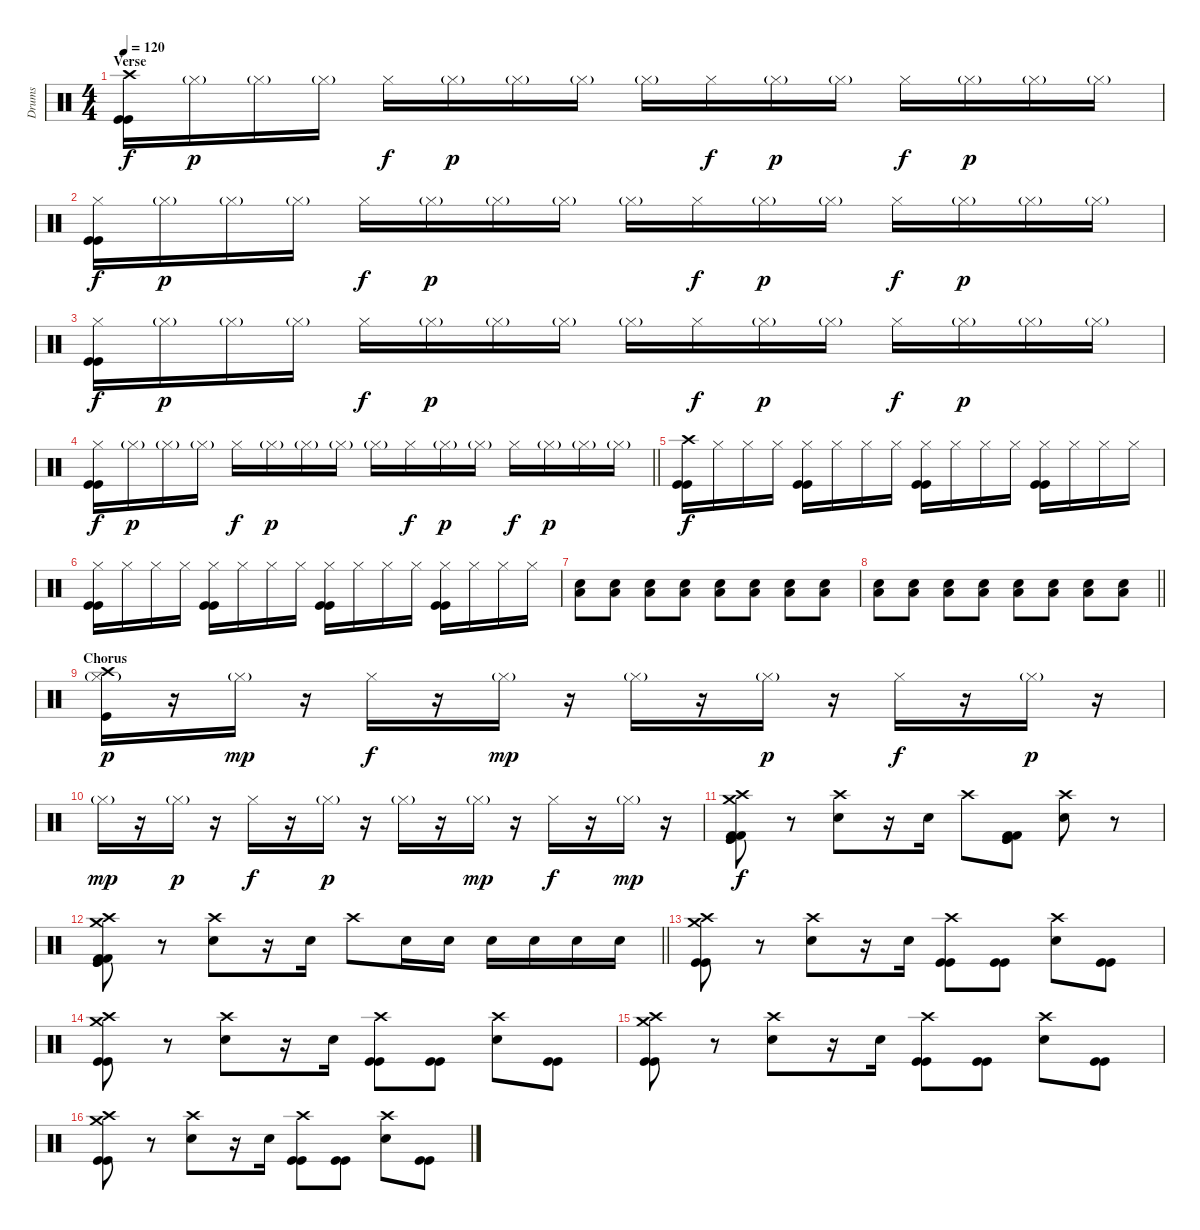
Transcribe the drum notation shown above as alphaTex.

\track ("Drums" "Drums") {instrument percussion}
\staff {score}
\articulation defaults
\ts (4 4)
\section ("" "Verse")
\tempo 120
\clef neutral
\ks c
("Crash high (hit)" "Kick (hit)" "Kick (hit)").16{dy f} "Hi-Hat (closed)"{g}.16{dy p} "Hi-Hat (closed)"{g}.16 "Hi-Hat (closed)"{g}.16 "Hi-Hat (closed)".16{dy f} "Hi-Hat (closed)"{g}.16{dy p} "Hi-Hat (closed)"{g}.16 "Hi-Hat (closed)"{g}.16 "Hi-Hat (closed)"{g}.16 "Hi-Hat (closed)".16{dy f} "Hi-Hat (closed)"{g}.16{dy p} "Hi-Hat (closed)"{g}.16 "Hi-Hat (closed)".16{dy f} "Hi-Hat (closed)"{g}.16{dy p} "Hi-Hat (closed)"{g}.16 "Hi-Hat (closed)"{g}.16 |
("Hi-Hat (closed)" "Kick (hit)" "Kick (hit)").16{dy f} "Hi-Hat (closed)"{g}.16{dy p} "Hi-Hat (closed)"{g}.16 "Hi-Hat (closed)"{g}.16 "Hi-Hat (closed)".16{dy f} "Hi-Hat (closed)"{g}.16{dy p} "Hi-Hat (closed)"{g}.16 "Hi-Hat (closed)"{g}.16 "Hi-Hat (closed)"{g}.16 "Hi-Hat (closed)".16{dy f} "Hi-Hat (closed)"{g}.16{dy p} "Hi-Hat (closed)"{g}.16 "Hi-Hat (closed)".16{dy f} "Hi-Hat (closed)"{g}.16{dy p} "Hi-Hat (closed)"{g}.16 "Hi-Hat (closed)"{g}.16 |
("Hi-Hat (closed)" "Kick (hit)" "Kick (hit)").16{dy f} "Hi-Hat (closed)"{g}.16{dy p} "Hi-Hat (closed)"{g}.16 "Hi-Hat (closed)"{g}.16 "Hi-Hat (closed)".16{dy f} "Hi-Hat (closed)"{g}.16{dy p} "Hi-Hat (closed)"{g}.16 "Hi-Hat (closed)"{g}.16 "Hi-Hat (closed)"{g}.16 "Hi-Hat (closed)".16{dy f} "Hi-Hat (closed)"{g}.16{dy p} "Hi-Hat (closed)"{g}.16 "Hi-Hat (closed)".16{dy f} "Hi-Hat (closed)"{g}.16{dy p} "Hi-Hat (closed)"{g}.16 "Hi-Hat (closed)"{g}.16 |
\barLineRight lightlight
("Hi-Hat (closed)" "Kick (hit)" "Kick (hit)").16{dy f} "Hi-Hat (closed)"{g}.16{dy p} "Hi-Hat (closed)"{g}.16 "Hi-Hat (closed)"{g}.16 "Hi-Hat (closed)".16{dy f} "Hi-Hat (closed)"{g}.16{dy p} "Hi-Hat (closed)"{g}.16 "Hi-Hat (closed)"{g}.16 "Hi-Hat (closed)"{g}.16 "Hi-Hat (closed)".16{dy f} "Hi-Hat (closed)"{g}.16{dy p} "Hi-Hat (closed)"{g}.16 "Hi-Hat (closed)".16{dy f} "Hi-Hat (closed)"{g}.16{dy p} "Hi-Hat (closed)"{g}.16 "Hi-Hat (closed)"{g}.16 |
("Crash high (hit)" "Kick (hit)" "Kick (hit)").16{dy f} "Hi-Hat (closed)".16 "Hi-Hat (closed)".16 "Hi-Hat (closed)".16 ("Hi-Hat (closed)" "Kick (hit)" "Kick (hit)").16 "Hi-Hat (closed)".16 "Hi-Hat (closed)".16 "Hi-Hat (closed)".16 ("Hi-Hat (closed)" "Kick (hit)" "Kick (hit)").16 "Hi-Hat (closed)".16 "Hi-Hat (closed)".16 "Hi-Hat (closed)".16 ("Hi-Hat (closed)" "Kick (hit)" "Kick (hit)").16 "Hi-Hat (closed)".16 "Hi-Hat (closed)".16 "Hi-Hat (closed)".16 |
("Hi-Hat (closed)" "Kick (hit)" "Kick (hit)").16 "Hi-Hat (closed)".16 "Hi-Hat (closed)".16 "Hi-Hat (closed)".16 ("Hi-Hat (closed)" "Kick (hit)" "Kick (hit)").16 "Hi-Hat (closed)".16 "Hi-Hat (closed)".16 "Hi-Hat (closed)".16 ("Hi-Hat (closed)" "Kick (hit)" "Kick (hit)").16 "Hi-Hat (closed)".16 "Hi-Hat (closed)".16 "Hi-Hat (closed)".16 ("Hi-Hat (closed)" "Kick (hit)" "Kick (hit)").16 "Hi-Hat (closed)".16 "Hi-Hat (closed)".16 "Hi-Hat (closed)".16 |
("Low Floor Tom (hit)" "Snare (hit) 2").8{volume 1} ("Low Floor Tom (hit)" "Snare (hit) 2").8{volume 13} ("Low Floor Tom (hit)" "Snare (hit) 2").8 ("Low Floor Tom (hit)" "Snare (hit) 2").8 ("Low Floor Tom (hit)" "Snare (hit) 2").8 ("Low Floor Tom (hit)" "Snare (hit) 2").8 ("Low Floor Tom (hit)" "Snare (hit) 2").8 ("Low Floor Tom (hit)" "Snare (hit) 2").8 |
\barLineRight lightlight
("Low Floor Tom (hit)" "Snare (hit) 2").8 ("Low Floor Tom (hit)" "Snare (hit) 2").8 ("Low Floor Tom (hit)" "Snare (hit) 2").8 ("Low Floor Tom (hit)" "Snare (hit) 2").8 ("Low Floor Tom (hit)" "Snare (hit) 2").8 ("Low Floor Tom (hit)" "Snare (hit) 2").8 ("Low Floor Tom (hit)" "Snare (hit) 2").8 ("Low Floor Tom (hit)" "Snare (hit) 2").8 |
\section ("" "Chorus")
("Hi-Hat (closed)"{g} "Crash high (hit)" "Kick (hit)").16{dy p} r.16 "Hi-Hat (closed)"{g}.16{dy mp} r.16 "Hi-Hat (closed)".16{dy f} r.16 "Hi-Hat (closed)"{g}.16{dy mp} r.16 "Hi-Hat (closed)"{g}.16 r.16 "Hi-Hat (closed)"{g}.16{dy p} r.16 "Hi-Hat (closed)".16{dy f} r.16 "Hi-Hat (closed)"{g}.16{dy p} r.16 |
"Hi-Hat (closed)"{g}.16{dy mp} r.16 "Hi-Hat (closed)"{g}.16{dy p} r.16 "Hi-Hat (closed)".16{dy f} r.16 "Hi-Hat (closed)"{g}.16{dy p} r.16 "Hi-Hat (closed)"{g}.16 r.16 "Hi-Hat (closed)"{g}.16{dy mp} r.16 "Hi-Hat (closed)".16{dy f} r.16 "Hi-Hat (closed)"{g}.16{dy mp} r.16 |
("Crash high (hit)" "Kick (hit)" "Kick (hit)" "Crash medium (hit)" "Kick (hit) 2" "Kick (hit) 2").8{dy f} r.8 ("Crash high (hit)" "Snare (hit) 2").8 r.16 "Snare (hit) 2".16 "Crash high (hit)".8 ("Kick (hit)" "Kick (hit)" "Kick (hit) 2" "Kick (hit) 2").8 ("Crash high (hit)" "Snare (hit) 2").8 r.8 |
\barLineRight lightlight
("Crash high (hit)" "Kick (hit)" "Kick (hit)" "Crash medium (hit)" "Kick (hit) 2" "Kick (hit) 2").8 r.8 ("Crash high (hit)" "Snare (hit) 2").8 r.16 "Snare (hit) 2".16 "Crash high (hit)".8 "Snare (hit) 2".16 "Snare (hit) 2".16 "Snare (hit) 2".16 "Snare (hit) 2".16 "Snare (hit) 2".16 "Snare (hit) 2".16 |
("Crash high (hit)" "Kick (hit)" "Kick (hit)" "Crash medium (hit)").8 r.8 ("Crash high (hit)" "Snare (hit) 2").8 r.16 "Snare (hit) 2".16 ("Crash high (hit)" "Kick (hit)" "Kick (hit)").8 ("Kick (hit)" "Kick (hit)").8 ("Crash high (hit)" "Snare (hit) 2").8 ("Kick (hit)" "Kick (hit)").8 |
("Crash high (hit)" "Kick (hit)" "Kick (hit)" "Crash medium (hit)").8 r.8 ("Crash high (hit)" "Snare (hit) 2").8 r.16 "Snare (hit) 2".16 ("Crash high (hit)" "Kick (hit)" "Kick (hit)").8 ("Kick (hit)" "Kick (hit)").8 ("Crash high (hit)" "Snare (hit) 2").8 ("Kick (hit)" "Kick (hit)").8 |
("Crash high (hit)" "Kick (hit)" "Kick (hit)" "Crash medium (hit)").8 r.8 ("Crash high (hit)" "Snare (hit) 2").8 r.16 "Snare (hit) 2".16 ("Crash high (hit)" "Kick (hit)" "Kick (hit)").8 ("Kick (hit)" "Kick (hit)").8 ("Crash high (hit)" "Snare (hit) 2").8 ("Kick (hit)" "Kick (hit)").8 |
("Crash high (hit)" "Kick (hit)" "Kick (hit)" "Crash medium (hit)").8 r.8 ("Crash high (hit)" "Snare (hit) 2").8 r.16 "Snare (hit) 2".16 ("Crash high (hit)" "Kick (hit)" "Kick (hit)").8 ("Kick (hit)" "Kick (hit)").8 ("Crash high (hit)" "Snare (hit) 2").8 ("Kick (hit)" "Kick (hit)").8
